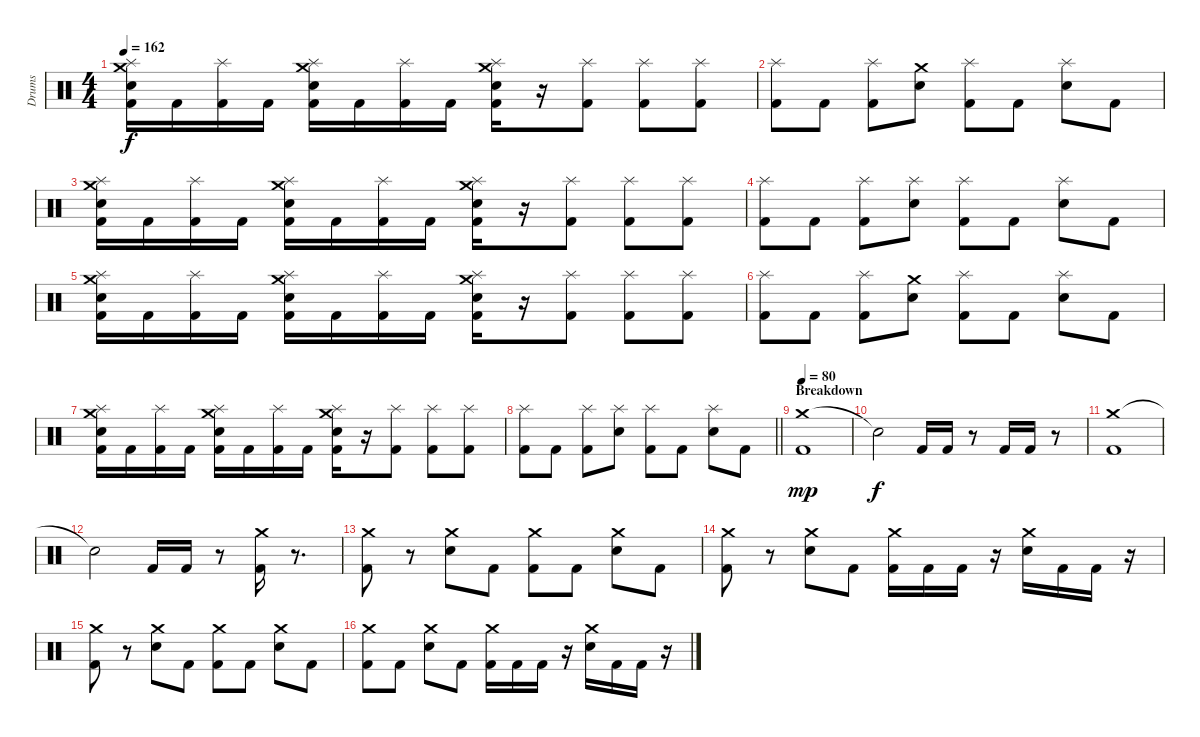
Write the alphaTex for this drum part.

\track ("Drums" "Drums") {instrument percussion}
\staff {score}
\articulation defaults
\ts (4 4)
\tempo 162
\clef neutral
\ks c
("Snare (hit) 2" "Kick (hit) 2" "Crash medium (hit)" "Splash (hit)").16{dy f} "Kick (hit) 2".16 ("Kick (hit) 2" "Splash (hit)").16 "Kick (hit) 2".16 ("Snare (hit) 2" "Kick (hit) 2" "Crash medium (hit)" "Splash (hit)").16 "Kick (hit) 2".16 ("Kick (hit) 2" "Splash (hit)").16 "Kick (hit) 2".16 ("Snare (hit) 2" "Kick (hit) 2" "Crash medium (hit)" "Splash (hit)").16 r.16 ("Kick (hit) 2" "Splash (hit)").8 ("Kick (hit) 2" "Splash (hit)").8 ("Kick (hit) 2" "Splash (hit)").8 |
("Kick (hit) 2" "Splash (hit)").8 "Kick (hit) 2".8 ("Kick (hit) 2" "Splash (hit)").8 ("Snare (hit) 2" "Crash medium (hit)").8 ("Kick (hit) 2" "Splash (hit)").8 "Kick (hit) 2".8 ("Snare (hit) 2" "Splash (hit)").8 "Kick (hit) 2".8 |
("Snare (hit) 2" "Kick (hit) 2" "Crash medium (hit)" "Splash (hit)").16 "Kick (hit) 2".16 ("Kick (hit) 2" "Splash (hit)").16 "Kick (hit) 2".16 ("Snare (hit) 2" "Kick (hit) 2" "Crash medium (hit)" "Splash (hit)").16 "Kick (hit) 2".16 ("Kick (hit) 2" "Splash (hit)").16 "Kick (hit) 2".16 ("Snare (hit) 2" "Kick (hit) 2" "Crash medium (hit)" "Splash (hit)").16 r.16 ("Kick (hit) 2" "Splash (hit)").8 ("Kick (hit) 2" "Splash (hit)").8 ("Kick (hit) 2" "Splash (hit)").8 |
("Kick (hit) 2" "Splash (hit)").8 "Kick (hit) 2".8 ("Kick (hit) 2" "Splash (hit)").8 ("Snare (hit) 2" "Splash (hit)").8 ("Kick (hit) 2" "Splash (hit)").8 "Kick (hit) 2".8 ("Snare (hit) 2" "Splash (hit)").8 "Kick (hit) 2".8 |
("Snare (hit) 2" "Kick (hit) 2" "Crash medium (hit)" "Splash (hit)").16 "Kick (hit) 2".16 ("Kick (hit) 2" "Splash (hit)").16 "Kick (hit) 2".16 ("Snare (hit) 2" "Kick (hit) 2" "Crash medium (hit)" "Splash (hit)").16 "Kick (hit) 2".16 ("Kick (hit) 2" "Splash (hit)").16 "Kick (hit) 2".16 ("Snare (hit) 2" "Kick (hit) 2" "Crash medium (hit)" "Splash (hit)").16 r.16 ("Kick (hit) 2" "Splash (hit)").8 ("Kick (hit) 2" "Splash (hit)").8 ("Kick (hit) 2" "Splash (hit)").8 |
("Kick (hit) 2" "Splash (hit)").8 "Kick (hit) 2".8 ("Kick (hit) 2" "Splash (hit)").8 ("Snare (hit) 2" "Crash medium (hit)").8 ("Kick (hit) 2" "Splash (hit)").8 "Kick (hit) 2".8 ("Snare (hit) 2" "Splash (hit)").8 "Kick (hit) 2".8 |
("Snare (hit) 2" "Kick (hit) 2" "Crash medium (hit)" "Splash (hit)").16 "Kick (hit) 2".16 ("Kick (hit) 2" "Splash (hit)").16 "Kick (hit) 2".16 ("Snare (hit) 2" "Kick (hit) 2" "Crash medium (hit)" "Splash (hit)").16 "Kick (hit) 2".16 ("Kick (hit) 2" "Splash (hit)").16 "Kick (hit) 2".16 ("Snare (hit) 2" "Kick (hit) 2" "Crash medium (hit)" "Splash (hit)").16 r.16 ("Kick (hit) 2" "Splash (hit)").8 ("Kick (hit) 2" "Splash (hit)").8 ("Kick (hit) 2" "Splash (hit)").8 |
\barLineRight lightlight
("Kick (hit) 2" "Splash (hit)").8 "Kick (hit) 2".8 ("Kick (hit) 2" "Splash (hit)").8 ("Snare (hit) 2" "Splash (hit)").8 ("Kick (hit) 2" "Splash (hit)").8 "Kick (hit) 2".8 ("Snare (hit) 2" "Splash (hit)").8 "Kick (hit) 2".8 |
\section ("" "Breakdown")
\tempo 80
("Crash medium (hit)" "Kick (hit) 2").1{dy mp} |
"Snare (hit)"{t}.2{dy f} "Kick (hit) 2".16 "Kick (hit) 2".16 r.8 "Kick (hit) 2".16 "Kick (hit) 2".16 r.8 |
("Crash medium (hit)" "Kick (hit) 2").1 |
"Snare (hit)"{t}.2 "Kick (hit) 2".16 "Kick (hit) 2".16 r.8 ("Crash medium (hit)" "Kick (hit) 2").16 r.8{d} |
("Crash medium (hit)" "Kick (hit) 2").8 r.8 ("Crash medium (hit)" "Snare (hit) 2").8 "Kick (hit) 2".8 ("Crash medium (hit)" "Kick (hit) 2").8 "Kick (hit) 2".8 ("Crash medium (hit)" "Snare (hit) 2").8 "Kick (hit) 2".8 |
("Crash medium (hit)" "Kick (hit) 2").8 r.8 ("Crash medium (hit)" "Snare (hit) 2").8 "Kick (hit) 2".8 ("Crash medium (hit)" "Kick (hit) 2").16 "Kick (hit) 2".16 "Kick (hit) 2".16 r.16 ("Crash medium (hit)" "Snare (hit) 2").16 "Kick (hit) 2".16 "Kick (hit) 2".16 r.16 |
("Crash medium (hit)" "Kick (hit) 2").8 r.8 ("Crash medium (hit)" "Snare (hit) 2").8 "Kick (hit) 2".8 ("Crash medium (hit)" "Kick (hit) 2").8 "Kick (hit) 2".8 ("Crash medium (hit)" "Snare (hit) 2").8 "Kick (hit) 2".8 |
("Crash medium (hit)" "Kick (hit) 2").8 "Kick (hit) 2".8 ("Crash medium (hit)" "Snare (hit) 2").8 "Kick (hit) 2".8 ("Crash medium (hit)" "Kick (hit) 2").16 "Kick (hit) 2".16 "Kick (hit) 2".16 r.16 ("Crash medium (hit)" "Snare (hit) 2").16 "Kick (hit) 2".16 "Kick (hit) 2".16 r.16
